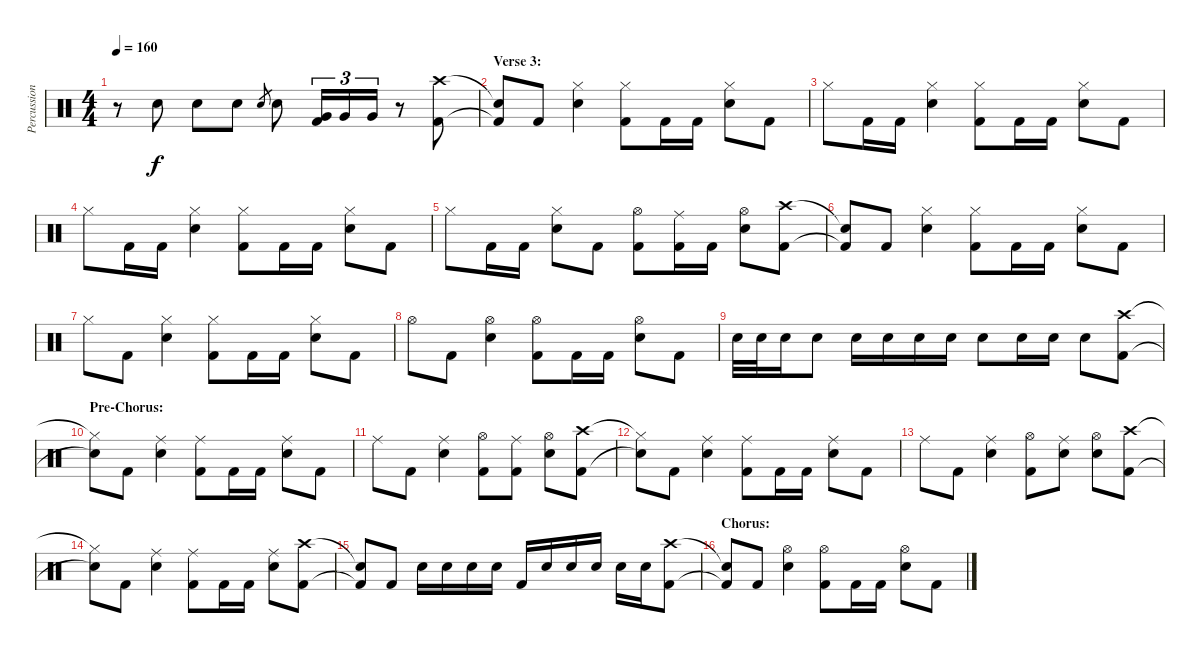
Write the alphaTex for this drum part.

\track ("Percussion" "Percussion") {instrument percussion}
\staff {score}
\articulation defaults
\ts (4 4)
\tempo 160
\clef neutral
\ks c
r.8{dy f} "Electric Snare (hit)".8 "Electric Snare (hit)".8 "Electric Snare (hit)".8 "Electric Snare (hit)".8{gr} "Electric Snare (hit)".8 ("Very Low Tom (hit)" "Kick (hit) 2").16{tu (3 2)} "Very Low Tom (hit)".16{tu (3 2)} "Very Low Tom (hit)".16{tu (3 2)} r.8 ("Crash high (hit)" "Kick (hit) 2").8 |
\section ("" "Verse 3:")
("Snare (hit)"{t} "Kick (hit) 2"{t}).8 "Kick (hit) 2".8 ("Hi-Hat (closed)" "Electric Snare (hit)").4 ("Hi-Hat (closed)" "Kick (hit) 2").8 "Kick (hit) 2".16 "Kick (hit) 2".16 ("Hi-Hat (closed)" "Electric Snare (hit)").8 "Kick (hit) 2".8 |
"Hi-Hat (closed)".8 "Kick (hit) 2".16 "Kick (hit) 2".16 ("Hi-Hat (closed)" "Electric Snare (hit)").4 ("Hi-Hat (closed)" "Kick (hit) 2").8 "Kick (hit) 2".16 "Kick (hit) 2".16 ("Hi-Hat (closed)" "Electric Snare (hit)").8 "Kick (hit) 2".8 |
"Hi-Hat (closed)".8 "Kick (hit) 2".16 "Kick (hit) 2".16 ("Hi-Hat (closed)" "Electric Snare (hit)").4 ("Hi-Hat (closed)" "Kick (hit) 2").8 "Kick (hit) 2".16 "Kick (hit) 2".16 ("Hi-Hat (closed)" "Electric Snare (hit)").8 "Kick (hit) 2".8 |
"Hi-Hat (closed)".8 "Kick (hit) 2".16 "Kick (hit) 2".16 ("Hi-Hat (closed)" "Electric Snare (hit)").8 "Kick (hit) 2".8 ("Hi-Hat (open)" "Kick (hit) 2").8 ("Ride (middle)" "Kick (hit) 2").16 "Kick (hit) 2".16 ("Hi-Hat (open)" "Electric Snare (hit)").8 ("Crash high (hit)" "Kick (hit) 2").8 |
("Snare (hit)"{t} "Kick (hit) 2"{t}).8 "Kick (hit) 2".8 ("Hi-Hat (closed)" "Electric Snare (hit)").4 ("Hi-Hat (closed)" "Kick (hit) 2").8 "Kick (hit) 2".16 "Kick (hit) 2".16 ("Hi-Hat (closed)" "Electric Snare (hit)").8 "Kick (hit) 2".8 |
"Hi-Hat (closed)".8 "Kick (hit) 2".8 ("Hi-Hat (closed)" "Electric Snare (hit)").4 ("Hi-Hat (closed)" "Kick (hit) 2").8 "Kick (hit) 2".16 "Kick (hit) 2".16 ("Hi-Hat (closed)" "Electric Snare (hit)").8 "Kick (hit) 2".8 |
"Hi-Hat (open)".8 "Kick (hit) 2".8 ("Hi-Hat (open)" "Electric Snare (hit)").4 ("Hi-Hat (open)" "Kick (hit) 2").8 "Kick (hit) 2".16 "Kick (hit) 2".16 ("Hi-Hat (open)" "Electric Snare (hit)").8 "Kick (hit) 2".8 |
"Electric Snare (hit)".32 "Electric Snare (hit)".32 "Electric Snare (hit)".16 "Electric Snare (hit)".8 "Electric Snare (hit)".16 "Electric Snare (hit)".16 "Electric Snare (hit)".16 "Electric Snare (hit)".16 "Electric Snare (hit)".8 "Electric Snare (hit)".16 "Electric Snare (hit)".16 "Electric Snare (hit)".8 ("Crash high (hit)" "Kick (hit) 2").8 |
\section ("" "Pre-Chorus:")
("Hi-Hat (closed)"{t} "Snare (hit)"{t}).8 "Kick (hit) 2".8 ("Ride (middle)" "Electric Snare (hit)").4 ("Ride (middle)" "Kick (hit) 2").8 "Kick (hit) 2".16 "Kick (hit) 2".16 ("Ride (middle)" "Electric Snare (hit)").8 "Kick (hit) 2".8 |
"Ride (middle)".8 "Kick (hit) 2".8 ("Ride (middle)" "Electric Snare (hit)").4 ("Hi-Hat (open)" "Kick (hit) 2").8 ("Ride (middle)" "Kick (hit) 2").8 ("Hi-Hat (open)" "Electric Snare (hit)").8 ("Crash high (hit)" "Kick (hit) 2").8 |
("Hi-Hat (closed)"{t} "Snare (hit)"{t}).8 "Kick (hit) 2".8 ("Ride (middle)" "Electric Snare (hit)").4 ("Ride (middle)" "Kick (hit) 2").8 "Kick (hit) 2".16 "Kick (hit) 2".16 ("Ride (middle)" "Electric Snare (hit)").8 "Kick (hit) 2".8 |
"Ride (middle)".8 "Kick (hit) 2".8 ("Ride (middle)" "Electric Snare (hit)").4 ("Hi-Hat (open)" "Kick (hit) 2").8 ("Ride (middle)" "Electric Snare (hit)").8 ("Hi-Hat (open)" "Electric Snare (hit)").8 ("Crash high (hit)" "Kick (hit) 2").8 |
("Hi-Hat (closed)"{t} "Snare (hit)"{t}).8 "Kick (hit) 2".8 ("Ride (middle)" "Electric Snare (hit)").4 ("Ride (middle)" "Kick (hit) 2").8 "Kick (hit) 2".16 "Kick (hit) 2".16 ("Ride (middle)" "Electric Snare (hit)").8 ("Crash high (hit)" "Kick (hit) 2").8 |
("Snare (hit)"{t} "Kick (hit) 2"{t}).8 "Kick (hit) 2".8 "Electric Snare (hit)".16 "Electric Snare (hit)".16 "Electric Snare (hit)".16 "Electric Snare (hit)".16 "Kick (hit) 2".16 "Electric Snare (hit)".16 "Electric Snare (hit)".16 "Electric Snare (hit)".16 "Electric Snare (hit)".16 "Electric Snare (hit)".16 ("Crash high (hit)" "Kick (hit) 2").8 |
\section ("" "Chorus:")
("Snare (hit)"{t} "Kick (hit) 2"{t}).8 "Kick (hit) 2".8 ("Hi-Hat (open)" "Electric Snare (hit)").4 ("Hi-Hat (open)" "Kick (hit) 2").8 "Kick (hit) 2".16 "Kick (hit) 2".16 ("Hi-Hat (open)" "Electric Snare (hit)").8 "Kick (hit) 2".8
